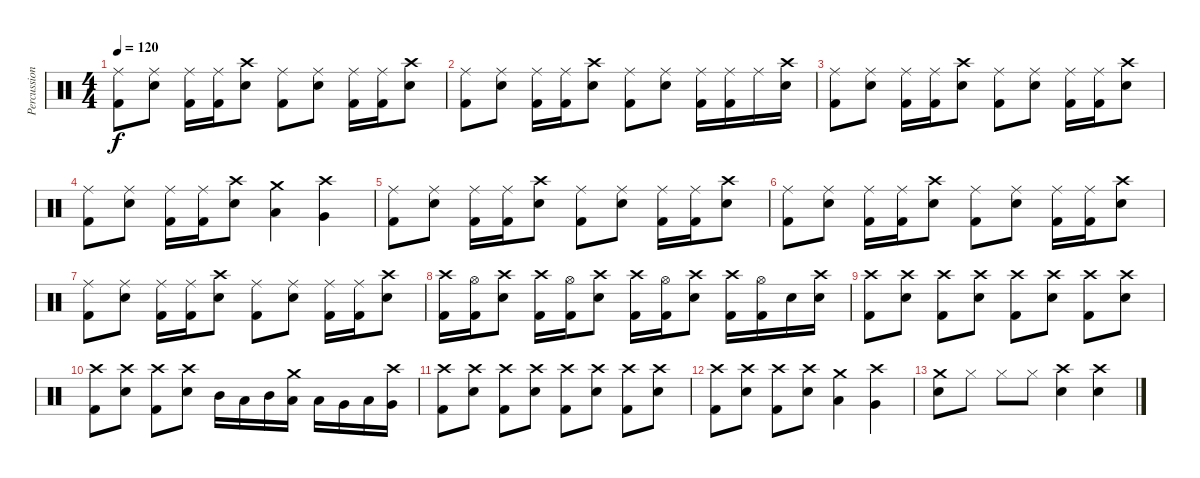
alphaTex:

\track ("Percussion" "Percussion") {instrument percussion}
\staff {score}
\articulation defaults
\ts (4 4)
\tempo 120
\clef neutral
\ks c
("Ride (middle)" "Kick (hit) 2").8{dy f} ("Ride (middle)" "Snare (hit) 2").8 ("Ride (middle)" "Kick (hit) 2").16 ("Ride (middle)" "Kick (hit) 2").16 ("Crash high (hit)" "Snare (hit) 2").8 ("Ride (middle)" "Kick (hit) 2").8 ("Ride (middle)" "Snare (hit) 2").8 ("Ride (middle)" "Kick (hit) 2").16 ("Ride (middle)" "Kick (hit) 2").16 ("Crash high (hit)" "Snare (hit) 2").8 |
("Ride (middle)" "Kick (hit) 2").8 ("Ride (middle)" "Snare (hit) 2").8 ("Ride (middle)" "Kick (hit) 2").16 ("Ride (middle)" "Kick (hit) 2").16 ("Crash high (hit)" "Snare (hit) 2").8 ("Ride (middle)" "Kick (hit) 2").8 ("Ride (middle)" "Snare (hit) 2").8 ("Ride (middle)" "Kick (hit) 2").16 ("Ride (middle)" "Kick (hit) 2").16 "Ride (middle)".16 ("Crash high (hit)" "Snare (hit) 2").16 |
("Ride (middle)" "Kick (hit) 2").8 ("Ride (middle)" "Snare (hit) 2").8 ("Ride (middle)" "Kick (hit) 2").16 ("Ride (middle)" "Kick (hit) 2").16 ("Crash high (hit)" "Snare (hit) 2").8 ("Ride (middle)" "Kick (hit) 2").8 ("Ride (middle)" "Snare (hit) 2").8 ("Ride (middle)" "Kick (hit) 2").16 ("Ride (middle)" "Kick (hit) 2").16 ("Crash high (hit)" "Snare (hit) 2").8 |
("Ride (middle)" "Kick (hit) 2").8 ("Ride (middle)" "Snare (hit) 2").8 ("Ride (middle)" "Kick (hit) 2").16 ("Ride (middle)" "Kick (hit) 2").16 ("Crash high (hit)" "Snare (hit) 2").8 ("Crash medium (hit)" "Low Tom (hit)").4 ("Crash high (hit)" "Very Low Tom (hit)").4 |
("Ride (middle)" "Kick (hit) 2").8 ("Ride (middle)" "Snare (hit) 2").8 ("Ride (middle)" "Kick (hit) 2").16 ("Ride (middle)" "Kick (hit) 2").16 ("Crash high (hit)" "Snare (hit) 2").8 ("Ride (middle)" "Kick (hit) 2").8 ("Ride (middle)" "Snare (hit) 2").8 ("Ride (middle)" "Kick (hit) 2").16 ("Ride (middle)" "Kick (hit) 2").16 ("Crash high (hit)" "Snare (hit) 2").8 |
("Ride (middle)" "Kick (hit) 2").8 ("Ride (middle)" "Snare (hit) 2").8 ("Ride (middle)" "Kick (hit) 2").16 ("Ride (middle)" "Kick (hit) 2").16 ("Crash high (hit)" "Snare (hit) 2").8 ("Ride (middle)" "Kick (hit) 2").8 ("Ride (middle)" "Snare (hit) 2").8 ("Ride (middle)" "Kick (hit) 2").16 ("Ride (middle)" "Kick (hit) 2").16 ("Crash high (hit)" "Snare (hit) 2").8 |
("Ride (middle)" "Kick (hit) 2").8 ("Ride (middle)" "Snare (hit) 2").8 ("Ride (middle)" "Kick (hit) 2").16 ("Ride (middle)" "Kick (hit) 2").16 ("Crash high (hit)" "Snare (hit) 2").8 ("Ride (middle)" "Kick (hit) 2").8 ("Ride (middle)" "Snare (hit) 2").8 ("Ride (middle)" "Kick (hit) 2").16 ("Ride (middle)" "Kick (hit) 2").16 ("Crash high (hit)" "Snare (hit) 2").8 |
("Crash high (hit)" "Kick (hit) 2").16 ("Hi-Hat (open)" "Kick (hit) 2").16 ("Crash high (hit)" "Snare (hit) 2").8 ("Crash high (hit)" "Kick (hit) 2").16 ("Hi-Hat (open)" "Kick (hit) 2").16 ("Crash high (hit)" "Snare (hit) 2").8 ("Crash high (hit)" "Kick (hit) 2").16 ("Hi-Hat (open)" "Kick (hit) 2").16 ("Crash high (hit)" "Snare (hit) 2").8 ("Crash high (hit)" "Kick (hit) 2").16 ("Hi-Hat (open)" "Kick (hit) 2").16 "Snare (hit) 2".16 ("Crash high (hit)" "Snare (hit) 2").16 |
("Crash high (hit)" "Kick (hit) 2").8 ("Crash high (hit)" "Snare (hit) 2").8 ("Crash high (hit)" "Kick (hit) 2").8 ("Crash high (hit)" "Snare (hit) 2").8 ("Crash high (hit)" "Kick (hit) 2").8 ("Crash high (hit)" "Snare (hit) 2").8 ("Crash high (hit)" "Kick (hit) 2").8 ("Crash high (hit)" "Snare (hit) 2").8 |
("Crash high (hit)" "Kick (hit) 2").8 ("Crash high (hit)" "Snare (hit) 2").8 ("Crash high (hit)" "Kick (hit) 2").8 ("Crash high (hit)" "Snare (hit) 2").8 "Mid Tom (hit)".16 "Low Tom (hit)".16 "Mid Tom (hit)".16 ("Crash medium (hit)" "Low Tom (hit)").16 "Low Tom (hit)".16 "Very Low Tom (hit)".16 "Low Tom (hit)".16 ("Crash high (hit)" "Very Low Tom (hit)").16 |
("Crash high (hit)" "Kick (hit) 2").8 ("Crash high (hit)" "Snare (hit) 2").8 ("Crash high (hit)" "Kick (hit) 2").8 ("Crash high (hit)" "Snare (hit) 2").8 ("Crash high (hit)" "Kick (hit) 2").8 ("Crash high (hit)" "Snare (hit) 2").8 ("Crash high (hit)" "Kick (hit) 2").8 ("Crash high (hit)" "Snare (hit) 2").8 |
("Crash high (hit)" "Kick (hit) 2").8 ("Crash high (hit)" "Snare (hit) 2").8 ("Crash high (hit)" "Kick (hit) 2").8 ("Crash high (hit)" "Snare (hit) 2").8 ("Crash medium (hit)" "Low Tom (hit)").4 ("Crash high (hit)" "Very Low Tom (hit)").4 |
("Crash medium (hit)" "Snare (hit) 2").8 "Hi-Hat (closed)".8 "Hi-Hat (closed)".8 "Hi-Hat (closed)".8 ("Crash high (hit)" "Snare (hit) 2").4 ("Crash high (hit)" "Snare (hit) 2").4
